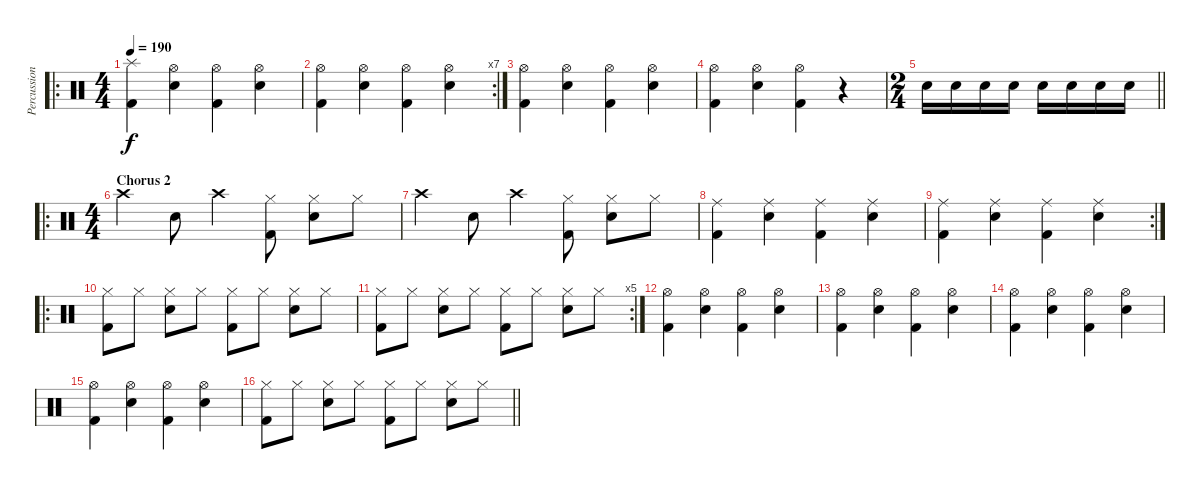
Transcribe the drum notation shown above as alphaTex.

\track ("Percussion" "Percussion") {instrument percussion}
\staff {score}
\articulation defaults
\ro
\ts (4 4)
\tempo 190
\clef neutral
\ks c
("Splash (hit)" "Kick (hit) 2").4{dy f} ("Hi-Hat (open)" "Snare (hit) 2").4 ("Hi-Hat (open)" "Kick (hit) 2").4 ("Hi-Hat (open)" "Snare (hit) 2").4 |
\rc 7
("Hi-Hat (open)" "Kick (hit) 2").4 ("Hi-Hat (open)" "Snare (hit) 2").4 ("Hi-Hat (open)" "Kick (hit) 2").4 ("Hi-Hat (open)" "Snare (hit) 2").4 |
("Hi-Hat (open)" "Kick (hit) 2").4 ("Hi-Hat (open)" "Snare (hit) 2").4 ("Hi-Hat (open)" "Kick (hit) 2").4 ("Hi-Hat (open)" "Snare (hit) 2").4 |
("Hi-Hat (open)" "Kick (hit) 2").4 ("Hi-Hat (open)" "Snare (hit) 2").4 ("Hi-Hat (open)" "Kick (hit) 2").4 r.4 |
\ts (2 4)
\barLineRight lightlight "Snare (hit) 2".16 "Snare (hit) 2".16 "Snare (hit) 2".16 "Snare (hit) 2".16 "Snare (hit) 2".16 "Snare (hit) 2".16 "Snare (hit) 2".16 "Snare (hit) 2".16
|
\ro
\ts (4 4)
\section ("" "Chorus 2")
"Crash high (hit)".4 "Snare (hit) 2".8 "Crash high (hit)".4 ("Hi-Hat (closed)" "Kick (hit) 2").8 ("Hi-Hat (closed)" "Snare (hit) 2").8 "Hi-Hat (closed)".8 |
"Crash high (hit)".4 "Snare (hit) 2".8 "Crash high (hit)".4 ("Hi-Hat (closed)" "Kick (hit) 2").8 ("Hi-Hat (closed)" "Snare (hit) 2").8 "Hi-Hat (closed)".8 |
("Ride (middle)" "Kick (hit) 2").4 ("Ride (middle)" "Snare (hit) 2").4 ("Ride (middle)" "Kick (hit) 2").4 ("Ride (middle)" "Snare (hit) 2").4 |
\rc 2
("Ride (middle)" "Kick (hit) 2").4 ("Ride (middle)" "Snare (hit) 2").4 ("Ride (middle)" "Kick (hit) 2").4 ("Ride (middle)" "Snare (hit) 2").4 |
\ro
("Hi-Hat (closed)" "Kick (hit) 2").8 "Hi-Hat (closed)".8 ("Hi-Hat (closed)" "Snare (hit) 2").8 "Hi-Hat (closed)".8 ("Hi-Hat (closed)" "Kick (hit) 2").8 "Hi-Hat (closed)".8 ("Hi-Hat (closed)" "Snare (hit) 2").8 "Hi-Hat (closed)".8 |
\rc 5
("Hi-Hat (closed)" "Kick (hit) 2").8 "Hi-Hat (closed)".8 ("Hi-Hat (closed)" "Snare (hit) 2").8 "Hi-Hat (closed)".8 ("Hi-Hat (closed)" "Kick (hit) 2").8 "Hi-Hat (closed)".8 ("Hi-Hat (closed)" "Snare (hit) 2").8 "Hi-Hat (closed)".8 |
("Hi-Hat (open)" "Kick (hit) 2").4 ("Hi-Hat (open)" "Snare (hit) 2").4 ("Hi-Hat (open)" "Kick (hit) 2").4 ("Hi-Hat (open)" "Snare (hit) 2").4 |
("Hi-Hat (open)" "Kick (hit) 2").4 ("Hi-Hat (open)" "Snare (hit) 2").4 ("Hi-Hat (open)" "Kick (hit) 2").4 ("Hi-Hat (open)" "Snare (hit) 2").4 |
("Hi-Hat (open)" "Kick (hit) 2").4 ("Hi-Hat (open)" "Snare (hit) 2").4 ("Hi-Hat (open)" "Kick (hit) 2").4 ("Hi-Hat (open)" "Snare (hit) 2").4 |
("Hi-Hat (open)" "Kick (hit) 2").4 ("Hi-Hat (open)" "Snare (hit) 2").4 ("Hi-Hat (open)" "Kick (hit) 2").4 ("Hi-Hat (open)" "Snare (hit) 2").4 |
\barLineRight lightlight
("Hi-Hat (closed)" "Kick (hit) 2").8 "Hi-Hat (closed)".8 ("Hi-Hat (closed)" "Snare (hit) 2").8 "Hi-Hat (closed)".8 ("Hi-Hat (closed)" "Kick (hit) 2").8 "Hi-Hat (closed)".8 ("Hi-Hat (closed)" "Snare (hit) 2").8 "Hi-Hat (closed)".8
